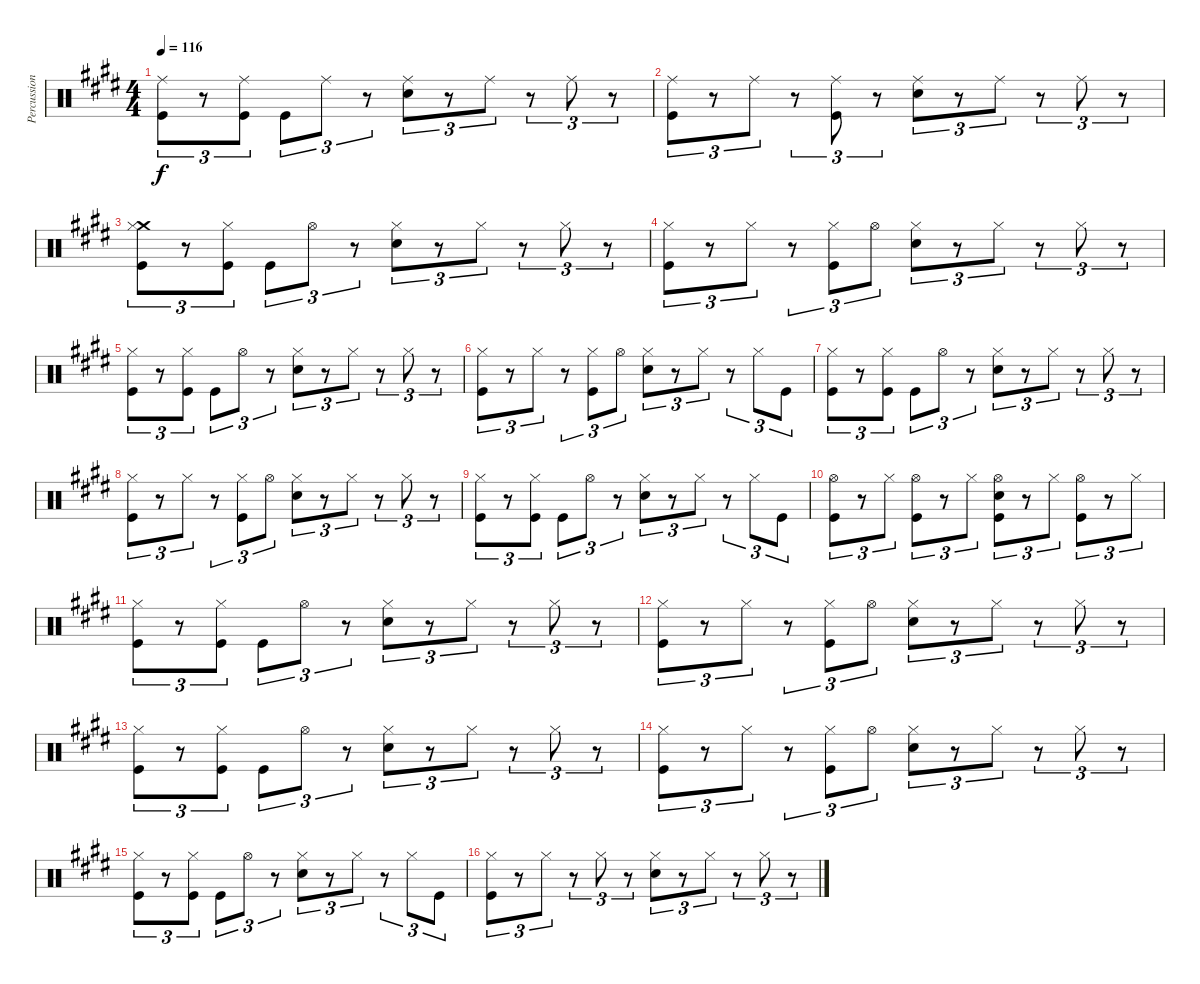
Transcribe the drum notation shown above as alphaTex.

\track ("Percussion" "Percussion") {instrument percussion}
\staff {score}
\articulation defaults
\ts (4 4)
\tempo 116
\clef neutral
\ks c#minor
("Ride (middle)" "Kick (hit)").8{tu (3 2) dy f} r.8{tu (3 2)} ("Ride (middle)" "Kick (hit)").8{tu (3 2)} "Kick (hit)".8{tu (3 2)} "Ride (middle)".8{tu (3 2)} r.8{tu (3 2)} ("Snare (hit) 2" "Ride (middle)").8{tu (3 2)} r.8{tu (3 2)} "Ride (middle)".8{tu (3 2)} r.8{tu (3 2)} "Ride (middle)".8{tu (3 2)} r.8{tu (3 2)} |
("Ride (middle)" "Kick (hit)").8{tu (3 2)} r.8{tu (3 2)} "Ride (middle)".8{tu (3 2)} r.8{tu (3 2)} ("Ride (middle)" "Kick (hit)").8{tu (3 2)} r.8{tu (3 2)} ("Snare (hit) 2" "Ride (middle)").8{tu (3 2)} r.8{tu (3 2)} "Ride (middle)".8{tu (3 2)} r.8{tu (3 2)} "Ride (middle)".8{tu (3 2)} r.8{tu (3 2)} |
("Crash medium (hit)" "Hi-Hat (closed)" "Kick (hit)").8{tu (3 2)} r.8{tu (3 2)} ("Hi-Hat (closed)" "Kick (hit)").8{tu (3 2)} "Kick (hit)".8{tu (3 2)} "Hi-Hat (open)".8{tu (3 2)} r.8{tu (3 2)} ("Snare (hit) 2" "Hi-Hat (closed)").8{tu (3 2)} r.8{tu (3 2)} "Hi-Hat (closed)".8{tu (3 2)} r.8{tu (3 2)} "Hi-Hat (closed)".8{tu (3 2)} r.8{tu (3 2)} |
("Hi-Hat (closed)" "Kick (hit)").8{tu (3 2)} r.8{tu (3 2)} "Hi-Hat (closed)".8{tu (3 2)} r.8{tu (3 2)} ("Hi-Hat (closed)" "Kick (hit)").8{tu (3 2)} "Hi-Hat (open)".8{tu (3 2)} ("Snare (hit) 2" "Hi-Hat (closed)").8{tu (3 2)} r.8{tu (3 2)} "Hi-Hat (closed)".8{tu (3 2)} r.8{tu (3 2)} "Hi-Hat (closed)".8{tu (3 2)} r.8{tu (3 2)} |
("Hi-Hat (closed)" "Kick (hit)").8{tu (3 2)} r.8{tu (3 2)} ("Hi-Hat (closed)" "Kick (hit)").8{tu (3 2)} "Kick (hit)".8{tu (3 2)} "Hi-Hat (open)".8{tu (3 2)} r.8{tu (3 2)} ("Snare (hit) 2" "Hi-Hat (closed)").8{tu (3 2)} r.8{tu (3 2)} "Hi-Hat (closed)".8{tu (3 2)} r.8{tu (3 2)} "Hi-Hat (closed)".8{tu (3 2)} r.8{tu (3 2)} |
("Hi-Hat (closed)" "Kick (hit)").8{tu (3 2)} r.8{tu (3 2)} "Hi-Hat (closed)".8{tu (3 2)} r.8{tu (3 2)} ("Hi-Hat (closed)" "Kick (hit)").8{tu (3 2)} "Hi-Hat (open)".8{tu (3 2)} ("Snare (hit) 2" "Hi-Hat (closed)").8{tu (3 2)} r.8{tu (3 2)} "Hi-Hat (closed)".8{tu (3 2)} r.8{tu (3 2)} "Hi-Hat (closed)".8{tu (3 2)} "Kick (hit)".8{tu (3 2)} |
("Hi-Hat (closed)" "Kick (hit)").8{tu (3 2)} r.8{tu (3 2)} ("Hi-Hat (closed)" "Kick (hit)").8{tu (3 2)} "Kick (hit)".8{tu (3 2)} "Hi-Hat (open)".8{tu (3 2)} r.8{tu (3 2)} ("Snare (hit) 2" "Hi-Hat (closed)").8{tu (3 2)} r.8{tu (3 2)} "Hi-Hat (closed)".8{tu (3 2)} r.8{tu (3 2)} "Hi-Hat (closed)".8{tu (3 2)} r.8{tu (3 2)} |
("Hi-Hat (closed)" "Kick (hit)").8{tu (3 2)} r.8{tu (3 2)} "Hi-Hat (closed)".8{tu (3 2)} r.8{tu (3 2)} ("Hi-Hat (closed)" "Kick (hit)").8{tu (3 2)} "Hi-Hat (open)".8{tu (3 2)} ("Snare (hit) 2" "Hi-Hat (closed)").8{tu (3 2)} r.8{tu (3 2)} "Hi-Hat (closed)".8{tu (3 2)} r.8{tu (3 2)} "Hi-Hat (closed)".8{tu (3 2)} r.8{tu (3 2)} |
("Hi-Hat (closed)" "Kick (hit)").8{tu (3 2)} r.8{tu (3 2)} ("Hi-Hat (closed)" "Kick (hit)").8{tu (3 2)} "Kick (hit)".8{tu (3 2)} "Hi-Hat (open)".8{tu (3 2)} r.8{tu (3 2)} ("Snare (hit) 2" "Hi-Hat (closed)").8{tu (3 2)} r.8{tu (3 2)} "Hi-Hat (closed)".8{tu (3 2)} r.8{tu (3 2)} "Hi-Hat (closed)".8{tu (3 2)} "Kick (hit)".8{tu (3 2)} |
("Hi-Hat (open)" "Kick (hit)").8{tu (3 2)} r.8{tu (3 2)} "Hi-Hat (closed)".8{tu (3 2)} ("Hi-Hat (open)" "Kick (hit)").8{tu (3 2)} r.8{tu (3 2)} "Hi-Hat (closed)".8{tu (3 2)} ("Snare (hit) 2" "Hi-Hat (open)" "Kick (hit)").8{tu (3 2)} r.8{tu (3 2)} "Hi-Hat (closed)".8{tu (3 2)} ("Hi-Hat (open)" "Kick (hit)").8{tu (3 2)} r.8{tu (3 2)} "Hi-Hat (closed)".8{tu (3 2)} |
("Hi-Hat (closed)" "Kick (hit)").8{tu (3 2)} r.8{tu (3 2)} ("Hi-Hat (closed)" "Kick (hit)").8{tu (3 2)} "Kick (hit)".8{tu (3 2)} "Hi-Hat (open)".8{tu (3 2)} r.8{tu (3 2)} ("Snare (hit) 2" "Hi-Hat (closed)").8{tu (3 2)} r.8{tu (3 2)} "Hi-Hat (closed)".8{tu (3 2)} r.8{tu (3 2)} "Hi-Hat (closed)".8{tu (3 2)} r.8{tu (3 2)} |
("Hi-Hat (closed)" "Kick (hit)").8{tu (3 2)} r.8{tu (3 2)} "Hi-Hat (closed)".8{tu (3 2)} r.8{tu (3 2)} ("Hi-Hat (closed)" "Kick (hit)").8{tu (3 2)} "Hi-Hat (open)".8{tu (3 2)} ("Snare (hit) 2" "Hi-Hat (closed)").8{tu (3 2)} r.8{tu (3 2)} "Hi-Hat (closed)".8{tu (3 2)} r.8{tu (3 2)} "Hi-Hat (closed)".8{tu (3 2)} r.8{tu (3 2)} |
("Hi-Hat (closed)" "Kick (hit)").8{tu (3 2)} r.8{tu (3 2)} ("Hi-Hat (closed)" "Kick (hit)").8{tu (3 2)} "Kick (hit)".8{tu (3 2)} "Hi-Hat (open)".8{tu (3 2)} r.8{tu (3 2)} ("Snare (hit) 2" "Hi-Hat (closed)").8{tu (3 2)} r.8{tu (3 2)} "Hi-Hat (closed)".8{tu (3 2)} r.8{tu (3 2)} "Hi-Hat (closed)".8{tu (3 2)} r.8{tu (3 2)} |
("Hi-Hat (closed)" "Kick (hit)").8{tu (3 2)} r.8{tu (3 2)} "Hi-Hat (closed)".8{tu (3 2)} r.8{tu (3 2)} ("Hi-Hat (closed)" "Kick (hit)").8{tu (3 2)} "Hi-Hat (open)".8{tu (3 2)} ("Snare (hit) 2" "Hi-Hat (closed)").8{tu (3 2)} r.8{tu (3 2)} "Hi-Hat (closed)".8{tu (3 2)} r.8{tu (3 2)} "Hi-Hat (closed)".8{tu (3 2)} r.8{tu (3 2)} |
("Hi-Hat (closed)" "Kick (hit)").8{tu (3 2)} r.8{tu (3 2)} ("Hi-Hat (closed)" "Kick (hit)").8{tu (3 2)} "Kick (hit)".8{tu (3 2)} "Hi-Hat (open)".8{tu (3 2)} r.8{tu (3 2)} ("Snare (hit) 2" "Hi-Hat (closed)").8{tu (3 2)} r.8{tu (3 2)} "Hi-Hat (closed)".8{tu (3 2)} r.8{tu (3 2)} "Hi-Hat (closed)".8{tu (3 2)} "Kick (hit)".8{tu (3 2)} |
("Hi-Hat (closed)" "Kick (hit)").8{tu (3 2)} r.8{tu (3 2)} "Hi-Hat (closed)".8{tu (3 2)} r.8{tu (3 2)} "Hi-Hat (closed)".8{tu (3 2)} r.8{tu (3 2)} ("Snare (hit) 2" "Hi-Hat (closed)").8{tu (3 2)} r.8{tu (3 2)} "Hi-Hat (closed)".8{tu (3 2)} r.8{tu (3 2)} "Hi-Hat (closed)".8{tu (3 2)} r.8{tu (3 2)}
